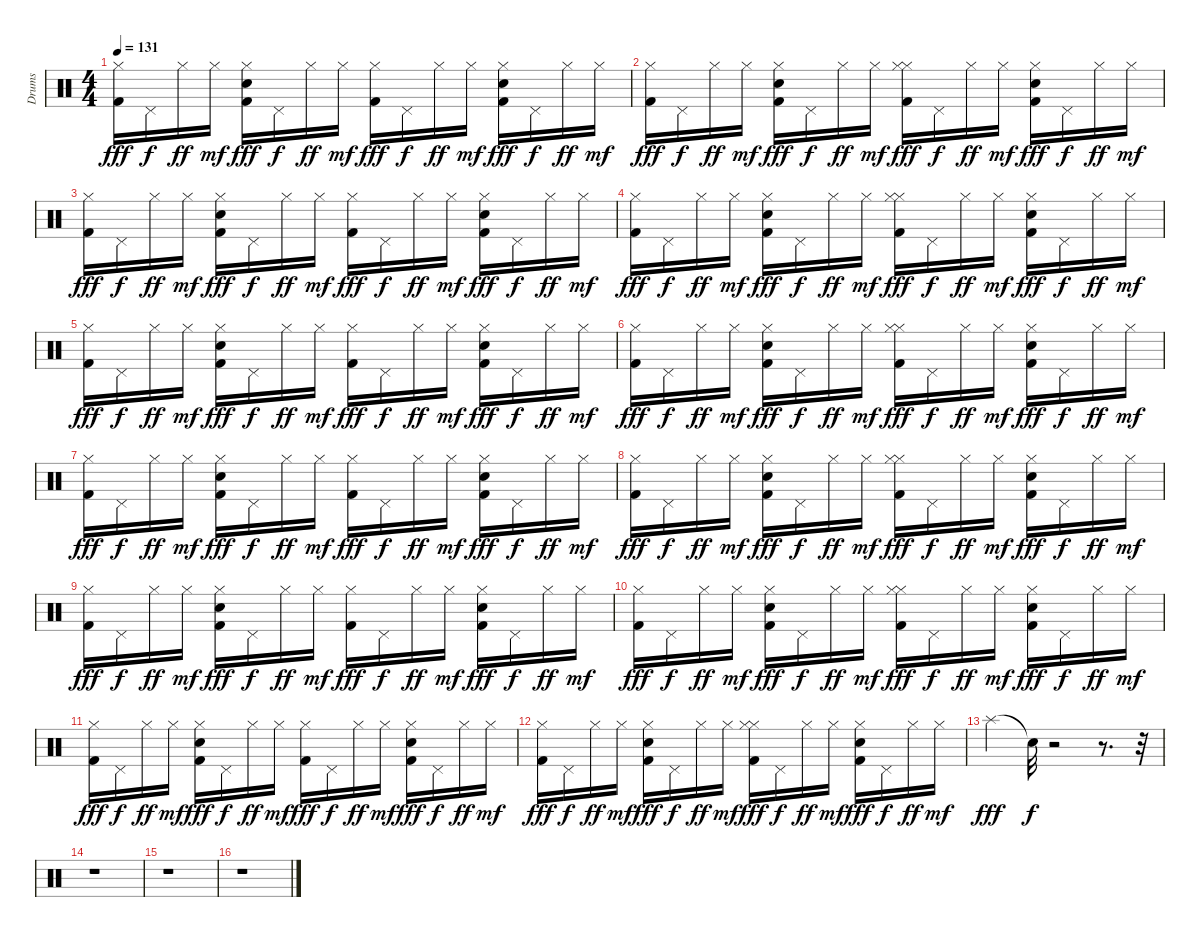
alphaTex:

\track ("Drums" "Drums") {instrument percussion}
\staff {score}
\articulation defaults
\ts (4 4)
\tempo 131
\clef neutral
\ks c
("Kick (hit) 2" "Hi-Hat (closed)").16{dy fff} "Pedal Hi-Hat (hit)".16{dy f} "Hi-Hat (closed)".16{dy ff} "Hi-Hat (closed)".16{dy mf} ("Kick (hit) 2" "Hand Clap (hit)" "Hi-Hat (closed)").16{dy fff} "Pedal Hi-Hat (hit)".16{dy f} "Hi-Hat (closed)".16{dy ff} "Hi-Hat (closed)".16{dy mf} ("Kick (hit) 2" "Hi-Hat (closed)").16{dy fff} "Pedal Hi-Hat (hit)".16{dy f} "Hi-Hat (closed)".16{dy ff} "Hi-Hat (closed)".16{dy mf} ("Kick (hit) 2" "Hand Clap (hit)" "Hi-Hat (closed)").16{dy fff} "Pedal Hi-Hat (hit)".16{dy f} "Hi-Hat (closed)".16{dy ff} "Hi-Hat (closed)".16{dy mf} |
("Kick (hit) 2" "Hi-Hat (closed)").16{dy fff} "Pedal Hi-Hat (hit)".16{dy f} "Hi-Hat (closed)".16{dy ff} "Hi-Hat (closed)".16{dy mf} ("Kick (hit) 2" "Hand Clap (hit)" "Hi-Hat (closed)").16{dy fff} "Pedal Hi-Hat (hit)".16{dy f} "Hi-Hat (closed)".16{dy ff} "Hi-Hat (closed)".16{dy mf} ("Kick (hit) 2" "Hi-Hat (closed)" "Hi-Hat (closed)").16{dy fff} "Pedal Hi-Hat (hit)".16{dy f} "Hi-Hat (closed)".16{dy ff} "Hi-Hat (closed)".16{dy mf} ("Kick (hit) 2" "Hand Clap (hit)" "Hi-Hat (closed)").16{dy fff} "Pedal Hi-Hat (hit)".16{dy f} "Hi-Hat (closed)".16{dy ff} "Hi-Hat (closed)".16{dy mf} |
("Kick (hit) 2" "Hi-Hat (closed)").16{dy fff} "Pedal Hi-Hat (hit)".16{dy f} "Hi-Hat (closed)".16{dy ff} "Hi-Hat (closed)".16{dy mf} ("Kick (hit) 2" "Hand Clap (hit)" "Hi-Hat (closed)").16{dy fff} "Pedal Hi-Hat (hit)".16{dy f} "Hi-Hat (closed)".16{dy ff} "Hi-Hat (closed)".16{dy mf} ("Kick (hit) 2" "Hi-Hat (closed)").16{dy fff} "Pedal Hi-Hat (hit)".16{dy f} "Hi-Hat (closed)".16{dy ff} "Hi-Hat (closed)".16{dy mf} ("Kick (hit) 2" "Hand Clap (hit)" "Hi-Hat (closed)").16{dy fff} "Pedal Hi-Hat (hit)".16{dy f} "Hi-Hat (closed)".16{dy ff} "Hi-Hat (closed)".16{dy mf} |
("Kick (hit) 2" "Hi-Hat (closed)").16{dy fff} "Pedal Hi-Hat (hit)".16{dy f} "Hi-Hat (closed)".16{dy ff} "Hi-Hat (closed)".16{dy mf} ("Kick (hit) 2" "Hand Clap (hit)" "Hi-Hat (closed)").16{dy fff} "Pedal Hi-Hat (hit)".16{dy f} "Hi-Hat (closed)".16{dy ff} "Hi-Hat (closed)".16{dy mf} ("Kick (hit) 2" "Hi-Hat (closed)" "Hi-Hat (closed)").16{dy fff} "Pedal Hi-Hat (hit)".16{dy f} "Hi-Hat (closed)".16{dy ff} "Hi-Hat (closed)".16{dy mf} ("Kick (hit) 2" "Hand Clap (hit)" "Hi-Hat (closed)").16{dy fff} "Pedal Hi-Hat (hit)".16{dy f} "Hi-Hat (closed)".16{dy ff} "Hi-Hat (closed)".16{dy mf} |
("Kick (hit) 2" "Hi-Hat (closed)").16{dy fff} "Pedal Hi-Hat (hit)".16{dy f} "Hi-Hat (closed)".16{dy ff} "Hi-Hat (closed)".16{dy mf} ("Kick (hit) 2" "Hand Clap (hit)" "Hi-Hat (closed)").16{dy fff} "Pedal Hi-Hat (hit)".16{dy f} "Hi-Hat (closed)".16{dy ff} "Hi-Hat (closed)".16{dy mf} ("Kick (hit) 2" "Hi-Hat (closed)").16{dy fff} "Pedal Hi-Hat (hit)".16{dy f} "Hi-Hat (closed)".16{dy ff} "Hi-Hat (closed)".16{dy mf} ("Kick (hit) 2" "Hand Clap (hit)" "Hi-Hat (closed)").16{dy fff} "Pedal Hi-Hat (hit)".16{dy f} "Hi-Hat (closed)".16{dy ff} "Hi-Hat (closed)".16{dy mf} |
("Kick (hit) 2" "Hi-Hat (closed)").16{dy fff} "Pedal Hi-Hat (hit)".16{dy f} "Hi-Hat (closed)".16{dy ff} "Hi-Hat (closed)".16{dy mf} ("Kick (hit) 2" "Hand Clap (hit)" "Hi-Hat (closed)").16{dy fff} "Pedal Hi-Hat (hit)".16{dy f} "Hi-Hat (closed)".16{dy ff} "Hi-Hat (closed)".16{dy mf} ("Kick (hit) 2" "Hi-Hat (closed)" "Hi-Hat (closed)").16{dy fff} "Pedal Hi-Hat (hit)".16{dy f} "Hi-Hat (closed)".16{dy ff} "Hi-Hat (closed)".16{dy mf} ("Kick (hit) 2" "Hand Clap (hit)" "Hi-Hat (closed)").16{dy fff} "Pedal Hi-Hat (hit)".16{dy f} "Hi-Hat (closed)".16{dy ff} "Hi-Hat (closed)".16{dy mf} |
("Kick (hit) 2" "Hi-Hat (closed)").16{dy fff} "Pedal Hi-Hat (hit)".16{dy f} "Hi-Hat (closed)".16{dy ff} "Hi-Hat (closed)".16{dy mf} ("Kick (hit) 2" "Hand Clap (hit)" "Hi-Hat (closed)").16{dy fff} "Pedal Hi-Hat (hit)".16{dy f} "Hi-Hat (closed)".16{dy ff} "Hi-Hat (closed)".16{dy mf} ("Kick (hit) 2" "Hi-Hat (closed)").16{dy fff} "Pedal Hi-Hat (hit)".16{dy f} "Hi-Hat (closed)".16{dy ff} "Hi-Hat (closed)".16{dy mf} ("Kick (hit) 2" "Hand Clap (hit)" "Hi-Hat (closed)").16{dy fff} "Pedal Hi-Hat (hit)".16{dy f} "Hi-Hat (closed)".16{dy ff} "Hi-Hat (closed)".16{dy mf} |
("Kick (hit) 2" "Hi-Hat (closed)").16{dy fff} "Pedal Hi-Hat (hit)".16{dy f} "Hi-Hat (closed)".16{dy ff} "Hi-Hat (closed)".16{dy mf} ("Kick (hit) 2" "Hand Clap (hit)" "Hi-Hat (closed)").16{dy fff} "Pedal Hi-Hat (hit)".16{dy f} "Hi-Hat (closed)".16{dy ff} "Hi-Hat (closed)".16{dy mf} ("Kick (hit) 2" "Hi-Hat (closed)" "Hi-Hat (closed)").16{dy fff} "Pedal Hi-Hat (hit)".16{dy f} "Hi-Hat (closed)".16{dy ff} "Hi-Hat (closed)".16{dy mf} ("Kick (hit) 2" "Hand Clap (hit)" "Hi-Hat (closed)").16{dy fff} "Pedal Hi-Hat (hit)".16{dy f} "Hi-Hat (closed)".16{dy ff} "Hi-Hat (closed)".16{dy mf} |
("Kick (hit) 2" "Hi-Hat (closed)").16{dy fff} "Pedal Hi-Hat (hit)".16{dy f} "Hi-Hat (closed)".16{dy ff} "Hi-Hat (closed)".16{dy mf} ("Kick (hit) 2" "Hand Clap (hit)" "Hi-Hat (closed)").16{dy fff} "Pedal Hi-Hat (hit)".16{dy f} "Hi-Hat (closed)".16{dy ff} "Hi-Hat (closed)".16{dy mf} ("Kick (hit) 2" "Hi-Hat (closed)").16{dy fff} "Pedal Hi-Hat (hit)".16{dy f} "Hi-Hat (closed)".16{dy ff} "Hi-Hat (closed)".16{dy mf} ("Kick (hit) 2" "Hand Clap (hit)" "Hi-Hat (closed)").16{dy fff} "Pedal Hi-Hat (hit)".16{dy f} "Hi-Hat (closed)".16{dy ff} "Hi-Hat (closed)".16{dy mf} |
("Kick (hit) 2" "Hi-Hat (closed)").16{dy fff} "Pedal Hi-Hat (hit)".16{dy f} "Hi-Hat (closed)".16{dy ff} "Hi-Hat (closed)".16{dy mf} ("Kick (hit) 2" "Hand Clap (hit)" "Hi-Hat (closed)").16{dy fff} "Pedal Hi-Hat (hit)".16{dy f} "Hi-Hat (closed)".16{dy ff} "Hi-Hat (closed)".16{dy mf} ("Kick (hit) 2" "Hi-Hat (closed)" "Hi-Hat (closed)").16{dy fff} "Pedal Hi-Hat (hit)".16{dy f} "Hi-Hat (closed)".16{dy ff} "Hi-Hat (closed)".16{dy mf} ("Kick (hit) 2" "Hand Clap (hit)" "Hi-Hat (closed)").16{dy fff} "Pedal Hi-Hat (hit)".16{dy f} "Hi-Hat (closed)".16{dy ff} "Hi-Hat (closed)".16{dy mf} |
("Kick (hit) 2" "Hi-Hat (closed)").16{dy fff} "Pedal Hi-Hat (hit)".16{dy f} "Hi-Hat (closed)".16{dy ff} "Hi-Hat (closed)".16{dy mf} ("Kick (hit) 2" "Hand Clap (hit)" "Hi-Hat (closed)").16{dy fff} "Pedal Hi-Hat (hit)".16{dy f} "Hi-Hat (closed)".16{dy ff} "Hi-Hat (closed)".16{dy mf} ("Kick (hit) 2" "Hi-Hat (closed)").16{dy fff} "Pedal Hi-Hat (hit)".16{dy f} "Hi-Hat (closed)".16{dy ff} "Hi-Hat (closed)".16{dy mf} ("Kick (hit) 2" "Hand Clap (hit)" "Hi-Hat (closed)").16{dy fff} "Pedal Hi-Hat (hit)".16{dy f} "Hi-Hat (closed)".16{dy ff} "Hi-Hat (closed)".16{dy mf} |
("Kick (hit) 2" "Hi-Hat (closed)").16{dy fff} "Pedal Hi-Hat (hit)".16{dy f} "Hi-Hat (closed)".16{dy ff} "Hi-Hat (closed)".16{dy mf} ("Kick (hit) 2" "Hand Clap (hit)" "Hi-Hat (closed)").16{dy fff} "Pedal Hi-Hat (hit)".16{dy f} "Hi-Hat (closed)".16{dy ff} "Hi-Hat (closed)".16{dy mf} ("Kick (hit) 2" "Hi-Hat (closed)" "Hi-Hat (closed)").16{dy fff} "Pedal Hi-Hat (hit)".16{dy f} "Hi-Hat (closed)".16{dy ff} "Hi-Hat (closed)".16{dy mf} ("Kick (hit) 2" "Hand Clap (hit)" "Hi-Hat (closed)").16{dy fff} "Pedal Hi-Hat (hit)".16{dy f} "Hi-Hat (closed)".16{dy ff} "Hi-Hat (closed)".16{dy mf} |
"Splash (hit)".4{dy fff} "Snare (hit)"{t}.32{dy f} r.2 r.8{d} r.32 |
r.1 |
r.1 |
r.1
